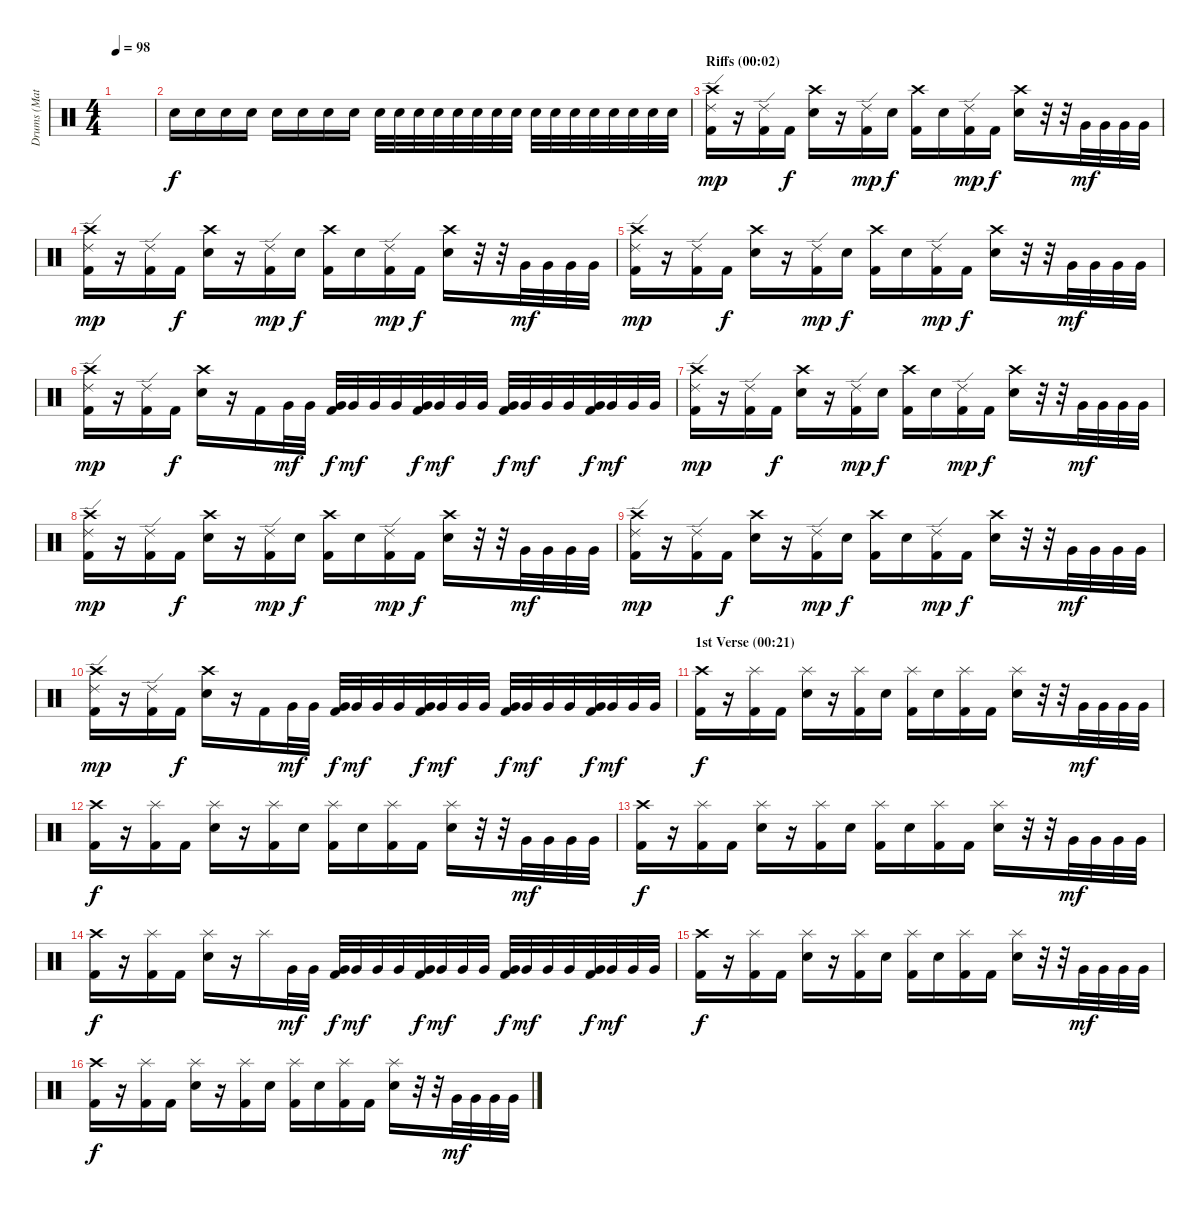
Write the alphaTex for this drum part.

\track ("Drums (Matt Sorum)" "Drums (Mat") {instrument percussion}
\staff {score}
\articulation defaults
\ts (4 4)
\tempo 98
\clef neutral
\ks c
|
"Electric Snare (hit)".16 "Electric Snare (hit)".16 "Electric Snare (hit)".16 "Electric Snare (hit)".16 "Electric Snare (hit)".16 "Electric Snare (hit)".16 "Electric Snare (hit)".16 "Electric Snare (hit)".16 "Electric Snare (hit)".32 "Electric Snare (hit)".32 "Electric Snare (hit)".32 "Electric Snare (hit)".32 "Electric Snare (hit)".32 "Electric Snare (hit)".32 "Electric Snare (hit)".32 "Electric Snare (hit)".32 "Electric Snare (hit)".32 "Electric Snare (hit)".32 "Electric Snare (hit)".32 "Electric Snare (hit)".32 "Electric Snare (hit)".32 "Electric Snare (hit)".32 "Electric Snare (hit)".32 "Electric Snare (hit)".32 |
\section ("" "Riffs (00:02)")
("Crash high (hit)" "Ride (edge) 2" "Kick (hit) 2").16{dy mp} r.16 ("Ride (edge) 2" "Kick (hit) 2").16 "Kick (hit) 2".16{dy f} ("Crash high (hit)" "Electric Snare (hit)").16 r.16 ("Ride (edge) 2" "Kick (hit) 2").16{dy mp} "Electric Snare (hit)".16{dy f} ("Crash high (hit)" "Kick (hit) 2").16 "Electric Snare (hit)".16 ("Ride (edge) 2" "Kick (hit) 2").16{dy mp} "Kick (hit) 2".16{dy f} ("Crash high (hit)" "Electric Snare (hit)").16 r.32 r.32 "Very Low Tom (hit)".32{dy mf} "Very Low Tom (hit)".32 "Very Low Tom (hit)".32 "Very Low Tom (hit)".32 |
("Crash high (hit)" "Ride (edge) 2" "Kick (hit) 2").16{dy mp} r.16 ("Ride (edge) 2" "Kick (hit) 2").16 "Kick (hit) 2".16{dy f} ("Crash high (hit)" "Electric Snare (hit)").16 r.16 ("Ride (edge) 2" "Kick (hit) 2").16{dy mp} "Electric Snare (hit)".16{dy f} ("Crash high (hit)" "Kick (hit) 2").16 "Electric Snare (hit)".16 ("Ride (edge) 2" "Kick (hit) 2").16{dy mp} "Kick (hit) 2".16{dy f} ("Crash high (hit)" "Electric Snare (hit)").16 r.32 r.32 "Very Low Tom (hit)".32{dy mf} "Very Low Tom (hit)".32 "Very Low Tom (hit)".32 "Very Low Tom (hit)".32 |
("Crash high (hit)" "Ride (edge) 2" "Kick (hit) 2").16{dy mp} r.16 ("Ride (edge) 2" "Kick (hit) 2").16 "Kick (hit) 2".16{dy f} ("Crash high (hit)" "Electric Snare (hit)").16 r.16 ("Ride (edge) 2" "Kick (hit) 2").16{dy mp} "Electric Snare (hit)".16{dy f} ("Crash high (hit)" "Kick (hit) 2").16 "Electric Snare (hit)".16 ("Ride (edge) 2" "Kick (hit) 2").16{dy mp} "Kick (hit) 2".16{dy f} ("Crash high (hit)" "Electric Snare (hit)").16 r.32 r.32 "Very Low Tom (hit)".32{dy mf} "Very Low Tom (hit)".32 "Very Low Tom (hit)".32 "Very Low Tom (hit)".32 |
("Crash high (hit)" "Ride (edge) 2" "Kick (hit) 2").16{dy mp} r.16 ("Ride (edge) 2" "Kick (hit) 2").16 "Kick (hit) 2".16{dy f} ("Crash high (hit)" "Electric Snare (hit)").16 r.16 "Kick (hit) 2".16 "Very Low Tom (hit)".32{dy mf} "Very Low Tom (hit)".32 ("Very Low Tom (hit)" "Kick (hit) 2").32{dy f} "Very Low Tom (hit)".32{dy mf} "Very Low Tom (hit)".32 "Very Low Tom (hit)".32 ("Very Low Tom (hit)" "Kick (hit) 2").32{dy f} "Very Low Tom (hit)".32{dy mf} "Very Low Tom (hit)".32 "Very Low Tom (hit)".32 ("Very Low Tom (hit)" "Kick (hit) 2").32{dy f} "Very Low Tom (hit)".32{dy mf} "Very Low Tom (hit)".32 "Very Low Tom (hit)".32 ("Very Low Tom (hit)" "Kick (hit) 2").32{dy f} "Very Low Tom (hit)".32{dy mf} "Very Low Tom (hit)".32 "Very Low Tom (hit)".32 |
("Crash high (hit)" "Ride (edge) 2" "Kick (hit) 2").16{dy mp} r.16 ("Ride (edge) 2" "Kick (hit) 2").16 "Kick (hit) 2".16{dy f} ("Crash high (hit)" "Electric Snare (hit)").16 r.16 ("Ride (edge) 2" "Kick (hit) 2").16{dy mp} "Electric Snare (hit)".16{dy f} ("Crash high (hit)" "Kick (hit) 2").16 "Electric Snare (hit)".16 ("Ride (edge) 2" "Kick (hit) 2").16{dy mp} "Kick (hit) 2".16{dy f} ("Crash high (hit)" "Electric Snare (hit)").16 r.32 r.32 "Very Low Tom (hit)".32{dy mf} "Very Low Tom (hit)".32 "Very Low Tom (hit)".32 "Very Low Tom (hit)".32 |
("Crash high (hit)" "Ride (edge) 2" "Kick (hit) 2").16{dy mp} r.16 ("Ride (edge) 2" "Kick (hit) 2").16 "Kick (hit) 2".16{dy f} ("Crash high (hit)" "Electric Snare (hit)").16 r.16 ("Ride (edge) 2" "Kick (hit) 2").16{dy mp} "Electric Snare (hit)".16{dy f} ("Crash high (hit)" "Kick (hit) 2").16 "Electric Snare (hit)".16 ("Ride (edge) 2" "Kick (hit) 2").16{dy mp} "Kick (hit) 2".16{dy f} ("Crash high (hit)" "Electric Snare (hit)").16 r.32 r.32 "Very Low Tom (hit)".32{dy mf} "Very Low Tom (hit)".32 "Very Low Tom (hit)".32 "Very Low Tom (hit)".32 |
("Crash high (hit)" "Ride (edge) 2" "Kick (hit) 2").16{dy mp} r.16 ("Ride (edge) 2" "Kick (hit) 2").16 "Kick (hit) 2".16{dy f} ("Crash high (hit)" "Electric Snare (hit)").16 r.16 ("Ride (edge) 2" "Kick (hit) 2").16{dy mp} "Electric Snare (hit)".16{dy f} ("Crash high (hit)" "Kick (hit) 2").16 "Electric Snare (hit)".16 ("Ride (edge) 2" "Kick (hit) 2").16{dy mp} "Kick (hit) 2".16{dy f} ("Crash high (hit)" "Electric Snare (hit)").16 r.32 r.32 "Very Low Tom (hit)".32{dy mf} "Very Low Tom (hit)".32 "Very Low Tom (hit)".32 "Very Low Tom (hit)".32 |
("Crash high (hit)" "Ride (edge) 2" "Kick (hit) 2").16{dy mp} r.16 ("Ride (edge) 2" "Kick (hit) 2").16 "Kick (hit) 2".16{dy f} ("Crash high (hit)" "Electric Snare (hit)").16 r.16 "Kick (hit) 2".16 "Very Low Tom (hit)".32{dy mf} "Very Low Tom (hit)".32 ("Very Low Tom (hit)" "Kick (hit) 2").32{dy f} "Very Low Tom (hit)".32{dy mf} "Very Low Tom (hit)".32 "Very Low Tom (hit)".32 ("Very Low Tom (hit)" "Kick (hit) 2").32{dy f} "Very Low Tom (hit)".32{dy mf} "Very Low Tom (hit)".32 "Very Low Tom (hit)".32 ("Very Low Tom (hit)" "Kick (hit) 2").32{dy f} "Very Low Tom (hit)".32{dy mf} "Very Low Tom (hit)".32 "Very Low Tom (hit)".32 ("Very Low Tom (hit)" "Kick (hit) 2").32{dy f} "Very Low Tom (hit)".32{dy mf} "Very Low Tom (hit)".32 "Very Low Tom (hit)".32 |
\section ("" "1st Verse (00:21)")
("Crash high (hit)" "Kick (hit) 2").16{dy f} r.16 ("Splash (hit)" "Kick (hit) 2").16 "Kick (hit) 2".16 ("Splash (hit)" "Electric Snare (hit)").16 r.16 ("Splash (hit)" "Kick (hit) 2").16 "Electric Snare (hit)".16 ("Splash (hit)" "Kick (hit) 2").16 "Electric Snare (hit)".16 ("Splash (hit)" "Kick (hit) 2").16 "Kick (hit) 2".16 ("Splash (hit)" "Electric Snare (hit)").16 r.32 r.32 "Very Low Tom (hit)".32{dy mf} "Very Low Tom (hit)".32 "Very Low Tom (hit)".32 "Very Low Tom (hit)".32 |
("Crash high (hit)" "Kick (hit) 2").16{dy f} r.16 ("Splash (hit)" "Kick (hit) 2").16 "Kick (hit) 2".16 ("Splash (hit)" "Electric Snare (hit)").16 r.16 ("Splash (hit)" "Kick (hit) 2").16 "Electric Snare (hit)".16 ("Splash (hit)" "Kick (hit) 2").16 "Electric Snare (hit)".16 ("Splash (hit)" "Kick (hit) 2").16 "Kick (hit) 2".16 ("Splash (hit)" "Electric Snare (hit)").16 r.32 r.32 "Very Low Tom (hit)".32{dy mf} "Very Low Tom (hit)".32 "Very Low Tom (hit)".32 "Very Low Tom (hit)".32 |
("Crash high (hit)" "Kick (hit) 2").16{dy f} r.16 ("Splash (hit)" "Kick (hit) 2").16 "Kick (hit) 2".16 ("Splash (hit)" "Electric Snare (hit)").16 r.16 ("Splash (hit)" "Kick (hit) 2").16 "Electric Snare (hit)".16 ("Splash (hit)" "Kick (hit) 2").16 "Electric Snare (hit)".16 ("Splash (hit)" "Kick (hit) 2").16 "Kick (hit) 2".16 ("Splash (hit)" "Electric Snare (hit)").16 r.32 r.32 "Very Low Tom (hit)".32{dy mf} "Very Low Tom (hit)".32 "Very Low Tom (hit)".32 "Very Low Tom (hit)".32 |
("Crash high (hit)" "Kick (hit) 2").16{dy f} r.16 ("Splash (hit)" "Kick (hit) 2").16 "Kick (hit) 2".16 ("Splash (hit)" "Electric Snare (hit)").16 r.16 "Splash (hit)".16 "Very Low Tom (hit)".32{dy mf} "Very Low Tom (hit)".32 ("Very Low Tom (hit)" "Kick (hit) 2").32{dy f} "Very Low Tom (hit)".32{dy mf} "Very Low Tom (hit)".32 "Very Low Tom (hit)".32 ("Very Low Tom (hit)" "Kick (hit) 2").32{dy f} "Very Low Tom (hit)".32{dy mf} "Very Low Tom (hit)".32 "Very Low Tom (hit)".32 ("Very Low Tom (hit)" "Kick (hit) 2").32{dy f} "Very Low Tom (hit)".32{dy mf} "Very Low Tom (hit)".32 "Very Low Tom (hit)".32 ("Very Low Tom (hit)" "Kick (hit) 2").32{dy f} "Very Low Tom (hit)".32{dy mf} "Very Low Tom (hit)".32 "Very Low Tom (hit)".32 |
("Crash high (hit)" "Kick (hit) 2").16{dy f} r.16 ("Splash (hit)" "Kick (hit) 2").16 "Kick (hit) 2".16 ("Splash (hit)" "Electric Snare (hit)").16 r.16 ("Splash (hit)" "Kick (hit) 2").16 "Electric Snare (hit)".16 ("Splash (hit)" "Kick (hit) 2").16 "Electric Snare (hit)".16 ("Splash (hit)" "Kick (hit) 2").16 "Kick (hit) 2".16 ("Splash (hit)" "Electric Snare (hit)").16 r.32 r.32 "Very Low Tom (hit)".32{dy mf} "Very Low Tom (hit)".32 "Very Low Tom (hit)".32 "Very Low Tom (hit)".32 |
("Crash high (hit)" "Kick (hit) 2").16{dy f} r.16 ("Splash (hit)" "Kick (hit) 2").16 "Kick (hit) 2".16 ("Splash (hit)" "Electric Snare (hit)").16 r.16 ("Splash (hit)" "Kick (hit) 2").16 "Electric Snare (hit)".16 ("Splash (hit)" "Kick (hit) 2").16 "Electric Snare (hit)".16 ("Splash (hit)" "Kick (hit) 2").16 "Kick (hit) 2".16 ("Splash (hit)" "Electric Snare (hit)").16 r.32 r.32 "Very Low Tom (hit)".32{dy mf} "Very Low Tom (hit)".32 "Very Low Tom (hit)".32 "Very Low Tom (hit)".32
